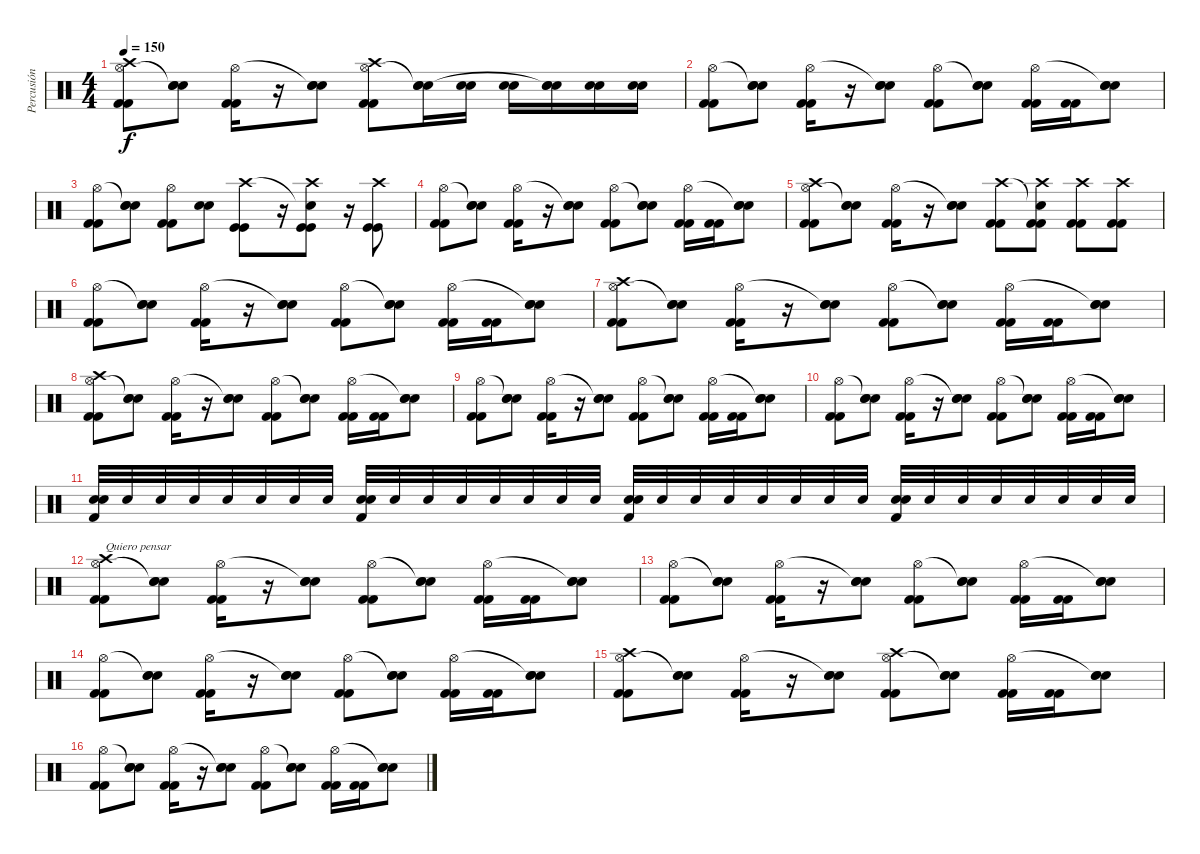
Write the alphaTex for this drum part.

\track ("Percusión" "Percusión") {instrument percussion}
\staff {score}
\articulation defaults
\ts (4 4)
\tempo 150
\clef neutral
\ks c
("Kick (hit) 2" "Kick (hit) 2" "Hi-Hat (open)" "Crash high (hit)").8{dy f} ("Snare (hit) 2" "Snare (hit) 2" "Snare (hit)"{t}).8 ("Kick (hit) 2" "Kick (hit) 2" "Hi-Hat (open)").16 r.16 ("Snare (hit) 2" "Snare (hit) 2" "Snare (hit)"{t}).8 ("Kick (hit) 2" "Kick (hit) 2" "Hi-Hat (open)" "Crash high (hit)").8 ("Snare (hit) 2" "Snare (hit) 2" "Snare (hit)"{t}).16 ("Snare (hit) 2" "Snare (hit) 2").16 ("Snare (hit) 2" "Snare (hit) 2").16 ("Snare (hit) 2" "Snare (hit) 2" "Snare (hit)"{t}).16 ("Snare (hit) 2" "Snare (hit) 2").16 ("Snare (hit) 2" "Snare (hit) 2").16 |
("Kick (hit) 2" "Kick (hit) 2" "Hi-Hat (open)").8 ("Snare (hit) 2" "Snare (hit) 2" "Snare (hit)"{t}).8 ("Kick (hit) 2" "Kick (hit) 2" "Hi-Hat (open)").16 r.16 ("Snare (hit) 2" "Snare (hit) 2" "Snare (hit)"{t}).8 ("Kick (hit) 2" "Kick (hit) 2" "Hi-Hat (open)").8 ("Snare (hit) 2" "Snare (hit) 2" "Snare (hit)"{t}).8 ("Kick (hit) 2" "Kick (hit) 2" "Hi-Hat (open)").16 ("Kick (hit) 2" "Kick (hit) 2").16 ("Snare (hit) 2" "Snare (hit) 2" "Snare (hit)"{t}).8 |
("Kick (hit) 2" "Kick (hit) 2" "Hi-Hat (open)").8 ("Snare (hit) 2" "Snare (hit) 2" "Snare (hit)"{t}).8 ("Kick (hit) 2" "Kick (hit) 2" "Hi-Hat (open)").8 ("Snare (hit) 2" "Snare (hit) 2").8 ("Kick (hit)" "Kick (hit)" "Crash high (hit)").8 r.16 ("Kick (hit)" "Kick (hit)" "Snare (hit)"{t} "Crash high (hit)").8 r.16 ("Kick (hit)" "Kick (hit)" "Crash high (hit)").8 |
("Kick (hit) 2" "Kick (hit) 2" "Hi-Hat (open)").8 ("Snare (hit) 2" "Snare (hit) 2" "Snare (hit)"{t}).8 ("Kick (hit) 2" "Kick (hit) 2" "Hi-Hat (open)").16 r.16 ("Snare (hit) 2" "Snare (hit) 2" "Snare (hit)"{t}).8 ("Kick (hit) 2" "Kick (hit) 2" "Hi-Hat (open)").8 ("Snare (hit) 2" "Snare (hit) 2" "Snare (hit)"{t}).8 ("Kick (hit) 2" "Kick (hit) 2" "Hi-Hat (open)").16 ("Kick (hit) 2" "Kick (hit) 2").16 ("Snare (hit) 2" "Snare (hit) 2" "Snare (hit)"{t}).8 |
("Kick (hit) 2" "Kick (hit) 2" "Hi-Hat (open)" "Crash high (hit)").8 ("Snare (hit) 2" "Snare (hit) 2" "Snare (hit)"{t}).8 ("Kick (hit) 2" "Kick (hit) 2" "Hi-Hat (open)").16 r.16 ("Snare (hit) 2" "Snare (hit) 2" "Snare (hit)"{t}).8 ("Kick (hit) 2" "Kick (hit) 2" "Crash high (hit)").8 ("Kick (hit) 2" "Kick (hit) 2" "Snare (hit)"{t} "Crash high (hit)").8 ("Kick (hit) 2" "Kick (hit) 2" "Crash high (hit)").8 ("Kick (hit) 2" "Kick (hit) 2" "Crash high (hit)").8 |
("Kick (hit) 2" "Kick (hit) 2" "Hi-Hat (open)").8 ("Snare (hit) 2" "Snare (hit) 2" "Snare (hit)"{t}).8 ("Kick (hit) 2" "Kick (hit) 2" "Hi-Hat (open)").16 r.16 ("Snare (hit) 2" "Snare (hit) 2" "Snare (hit)"{t}).8 ("Kick (hit) 2" "Kick (hit) 2" "Hi-Hat (open)").8 ("Snare (hit) 2" "Snare (hit) 2" "Snare (hit)"{t}).8 ("Kick (hit) 2" "Kick (hit) 2" "Hi-Hat (open)").16 ("Kick (hit) 2" "Kick (hit) 2").16 ("Snare (hit) 2" "Snare (hit) 2" "Snare (hit)"{t}).8 |
("Kick (hit) 2" "Kick (hit) 2" "Hi-Hat (open)" "Crash high (hit)").8 ("Snare (hit) 2" "Snare (hit) 2" "Snare (hit)"{t}).8 ("Kick (hit) 2" "Kick (hit) 2" "Hi-Hat (open)").16 r.16 ("Snare (hit) 2" "Snare (hit) 2" "Snare (hit)"{t}).8 ("Kick (hit) 2" "Kick (hit) 2" "Hi-Hat (open)").8 ("Snare (hit) 2" "Snare (hit) 2" "Snare (hit)"{t}).8 ("Kick (hit) 2" "Kick (hit) 2" "Hi-Hat (open)").16 ("Kick (hit) 2" "Kick (hit) 2").16 ("Snare (hit) 2" "Snare (hit) 2" "Snare (hit)"{t}).8 |
("Kick (hit) 2" "Kick (hit) 2" "Hi-Hat (open)" "Crash high (hit)").8 ("Snare (hit) 2" "Snare (hit) 2" "Snare (hit)"{t}).8 ("Kick (hit) 2" "Kick (hit) 2" "Hi-Hat (open)").16 r.16 ("Snare (hit) 2" "Snare (hit) 2" "Snare (hit)"{t}).8 ("Kick (hit) 2" "Kick (hit) 2" "Hi-Hat (open)").8 ("Snare (hit) 2" "Snare (hit) 2" "Snare (hit)"{t}).8 ("Kick (hit) 2" "Kick (hit) 2" "Hi-Hat (open)").16 ("Kick (hit) 2" "Kick (hit) 2").16 ("Snare (hit) 2" "Snare (hit) 2" "Snare (hit)"{t}).8 |
("Kick (hit) 2" "Kick (hit) 2" "Hi-Hat (open)").8 ("Snare (hit) 2" "Snare (hit) 2" "Snare (hit)"{t}).8 ("Kick (hit) 2" "Kick (hit) 2" "Hi-Hat (open)").16 r.16 ("Snare (hit) 2" "Snare (hit) 2" "Snare (hit)"{t}).8 ("Kick (hit) 2" "Kick (hit) 2" "Hi-Hat (open)").8 ("Snare (hit) 2" "Snare (hit) 2" "Snare (hit)"{t}).8 ("Kick (hit) 2" "Kick (hit) 2" "Hi-Hat (open)").16 ("Kick (hit) 2" "Kick (hit) 2").16 ("Snare (hit) 2" "Snare (hit) 2" "Snare (hit)"{t}).8 |
("Kick (hit) 2" "Kick (hit) 2" "Hi-Hat (open)").8 ("Snare (hit) 2" "Snare (hit) 2" "Snare (hit)"{t}).8 ("Kick (hit) 2" "Kick (hit) 2" "Hi-Hat (open)").16 r.16 ("Snare (hit) 2" "Snare (hit) 2" "Snare (hit)"{t}).8 ("Kick (hit) 2" "Kick (hit) 2" "Hi-Hat (open)").8 ("Snare (hit) 2" "Snare (hit) 2" "Snare (hit)"{t}).8 ("Kick (hit) 2" "Kick (hit) 2" "Hi-Hat (open)").16 ("Kick (hit) 2" "Kick (hit) 2").16 ("Snare (hit) 2" "Snare (hit) 2" "Snare (hit)"{t}).8 |
("Snare (hit) 2" "Snare (hit) 2" "Kick (hit) 2").32 "Snare (hit) 2".32 "Snare (hit) 2".32 "Snare (hit) 2".32 "Snare (hit) 2".32 "Snare (hit) 2".32 "Snare (hit) 2".32 "Snare (hit) 2".32 ("Snare (hit) 2" "Snare (hit) 2" "Kick (hit) 2").32 "Snare (hit) 2".32 "Snare (hit) 2".32 "Snare (hit) 2".32 "Snare (hit) 2".32 "Snare (hit) 2".32 "Snare (hit) 2".32 "Snare (hit) 2".32 ("Snare (hit) 2" "Snare (hit) 2" "Kick (hit) 2").32 "Snare (hit) 2".32 "Snare (hit) 2".32 "Snare (hit) 2".32 "Snare (hit) 2".32 "Snare (hit) 2".32 "Snare (hit) 2".32 "Snare (hit) 2".32 ("Snare (hit) 2" "Snare (hit) 2" "Kick (hit) 2").32 "Snare (hit) 2".32 "Snare (hit) 2".32 "Snare (hit) 2".32 "Snare (hit) 2".32 "Snare (hit) 2".32 "Snare (hit) 2".32 "Snare (hit) 2".32 |
("Kick (hit) 2" "Kick (hit) 2" "Hi-Hat (open)" "Crash high (hit)").8{txt "Quiero pensar"} ("Snare (hit) 2" "Snare (hit) 2" "Snare (hit)"{t}).8 ("Kick (hit) 2" "Kick (hit) 2" "Hi-Hat (open)").16 r.16 ("Snare (hit) 2" "Snare (hit) 2" "Snare (hit)"{t}).8 ("Kick (hit) 2" "Kick (hit) 2" "Hi-Hat (open)").8 ("Snare (hit) 2" "Snare (hit) 2" "Snare (hit)"{t}).8 ("Kick (hit) 2" "Kick (hit) 2" "Hi-Hat (open)").16 ("Kick (hit) 2" "Kick (hit) 2").16 ("Snare (hit) 2" "Snare (hit) 2" "Snare (hit)"{t}).8 |
("Kick (hit) 2" "Kick (hit) 2" "Hi-Hat (open)").8 ("Snare (hit) 2" "Snare (hit) 2" "Snare (hit)"{t}).8 ("Kick (hit) 2" "Kick (hit) 2" "Hi-Hat (open)").16 r.16 ("Snare (hit) 2" "Snare (hit) 2" "Snare (hit)"{t}).8 ("Kick (hit) 2" "Kick (hit) 2" "Hi-Hat (open)").8 ("Snare (hit) 2" "Snare (hit) 2" "Snare (hit)"{t}).8 ("Kick (hit) 2" "Kick (hit) 2" "Hi-Hat (open)").16 ("Kick (hit) 2" "Kick (hit) 2").16 ("Snare (hit) 2" "Snare (hit) 2" "Snare (hit)"{t}).8 |
("Kick (hit) 2" "Kick (hit) 2" "Hi-Hat (open)").8 ("Snare (hit) 2" "Snare (hit) 2" "Snare (hit)"{t}).8 ("Kick (hit) 2" "Kick (hit) 2" "Hi-Hat (open)").16 r.16 ("Snare (hit) 2" "Snare (hit) 2" "Snare (hit)"{t}).8 ("Kick (hit) 2" "Kick (hit) 2" "Hi-Hat (open)").8 ("Snare (hit) 2" "Snare (hit) 2" "Snare (hit)"{t}).8 ("Kick (hit) 2" "Kick (hit) 2" "Hi-Hat (open)").16 ("Kick (hit) 2" "Kick (hit) 2").16 ("Snare (hit) 2" "Snare (hit) 2" "Snare (hit)"{t}).8 |
("Kick (hit) 2" "Kick (hit) 2" "Hi-Hat (open)" "Crash high (hit)").8 ("Snare (hit) 2" "Snare (hit) 2" "Snare (hit)"{t}).8 ("Kick (hit) 2" "Kick (hit) 2" "Hi-Hat (open)").16 r.16 ("Snare (hit) 2" "Snare (hit) 2" "Snare (hit)"{t}).8 ("Kick (hit) 2" "Kick (hit) 2" "Hi-Hat (open)" "Crash high (hit)").8 ("Snare (hit) 2" "Snare (hit) 2" "Snare (hit)"{t}).8 ("Kick (hit) 2" "Kick (hit) 2" "Hi-Hat (open)").16 ("Kick (hit) 2" "Kick (hit) 2").16 ("Snare (hit) 2" "Snare (hit) 2" "Snare (hit)"{t}).8 |
("Kick (hit) 2" "Kick (hit) 2" "Hi-Hat (open)").8 ("Snare (hit) 2" "Snare (hit) 2" "Snare (hit)"{t}).8 ("Kick (hit) 2" "Kick (hit) 2" "Hi-Hat (open)").16 r.16 ("Snare (hit) 2" "Snare (hit) 2" "Snare (hit)"{t}).8 ("Kick (hit) 2" "Kick (hit) 2" "Hi-Hat (open)").8 ("Snare (hit) 2" "Snare (hit) 2" "Snare (hit)"{t}).8 ("Kick (hit) 2" "Kick (hit) 2" "Hi-Hat (open)").16 ("Kick (hit) 2" "Kick (hit) 2").16 ("Snare (hit) 2" "Snare (hit) 2" "Snare (hit)"{t}).8
